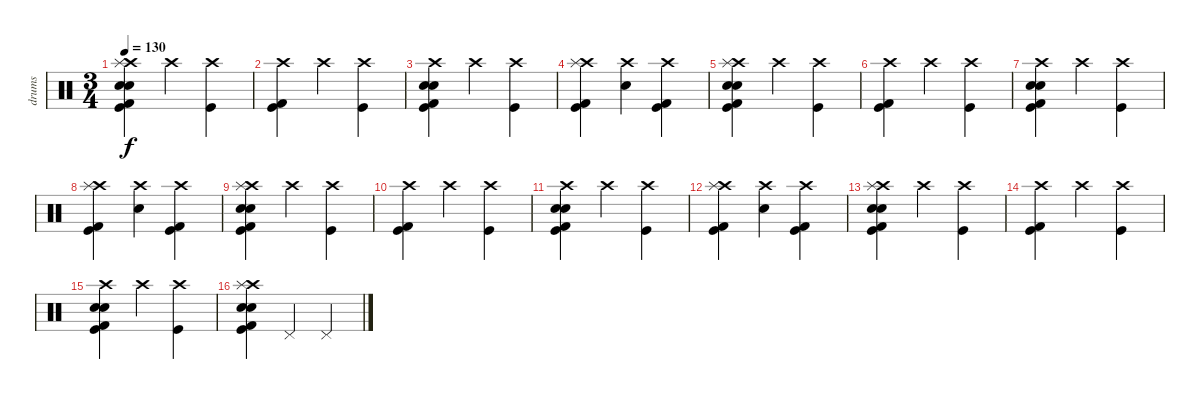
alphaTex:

\track ("drums" "drums") {instrument percussion}
\staff {score}
\articulation defaults
\ts (3 4)
\tempo 130
\clef neutral
\ks c
("Crash high (hit)" "Electric Snare (hit)" "Snare (hit) 2" "Splash (hit)" "Kick (hit) 2" "Kick (hit)").4{dy f} "Crash high (hit)".4 ("Crash high (hit)" "Kick (hit)").4 |
("Crash high (hit)" "Kick (hit) 2" "Kick (hit)").4 "Crash high (hit)".4 ("Crash high (hit)" "Kick (hit)").4 |
("Crash high (hit)" "Electric Snare (hit)" "Snare (hit) 2" "Kick (hit) 2" "Kick (hit)").4 "Crash high (hit)".4 ("Crash high (hit)" "Kick (hit)").4 |
("Crash high (hit)" "Splash (hit)" "Kick (hit) 2" "Kick (hit)").4 ("Crash high (hit)" "Snare (hit) 2").4 ("Crash high (hit)" "Kick (hit) 2" "Kick (hit)").4 |
("Crash high (hit)" "Electric Snare (hit)" "Snare (hit) 2" "Splash (hit)" "Kick (hit) 2" "Kick (hit)").4 "Crash high (hit)".4 ("Crash high (hit)" "Kick (hit)").4 |
("Crash high (hit)" "Kick (hit) 2" "Kick (hit)").4 "Crash high (hit)".4 ("Crash high (hit)" "Kick (hit)").4 |
("Crash high (hit)" "Electric Snare (hit)" "Snare (hit) 2" "Kick (hit) 2" "Kick (hit)").4 "Crash high (hit)".4 ("Crash high (hit)" "Kick (hit)").4 |
("Crash high (hit)" "Splash (hit)" "Kick (hit) 2" "Kick (hit)").4 ("Crash high (hit)" "Snare (hit) 2").4 ("Crash high (hit)" "Kick (hit) 2" "Kick (hit)").4 |
("Crash high (hit)" "Electric Snare (hit)" "Snare (hit) 2" "Splash (hit)" "Kick (hit) 2" "Kick (hit)").4 "Crash high (hit)".4 ("Crash high (hit)" "Kick (hit)").4 |
("Crash high (hit)" "Kick (hit) 2" "Kick (hit)").4 "Crash high (hit)".4 ("Crash high (hit)" "Kick (hit)").4 |
("Crash high (hit)" "Electric Snare (hit)" "Snare (hit) 2" "Kick (hit) 2" "Kick (hit)").4 "Crash high (hit)".4 ("Crash high (hit)" "Kick (hit)").4 |
("Crash high (hit)" "Splash (hit)" "Kick (hit) 2" "Kick (hit)").4 ("Crash high (hit)" "Snare (hit) 2").4 ("Crash high (hit)" "Kick (hit) 2" "Kick (hit)").4 |
("Crash high (hit)" "Electric Snare (hit)" "Snare (hit) 2" "Splash (hit)" "Kick (hit) 2" "Kick (hit)").4 "Crash high (hit)".4 ("Crash high (hit)" "Kick (hit)").4 |
("Crash high (hit)" "Kick (hit) 2" "Kick (hit)").4 "Crash high (hit)".4 ("Crash high (hit)" "Kick (hit)").4 |
("Crash high (hit)" "Electric Snare (hit)" "Snare (hit) 2" "Kick (hit) 2" "Kick (hit)").4 "Crash high (hit)".4 ("Crash high (hit)" "Kick (hit)").4 |
("Crash high (hit)" "Electric Snare (hit)" "Snare (hit) 2" "Splash (hit)" "Kick (hit) 2" "Kick (hit)").4 "Pedal Hi-Hat (hit)".4 "Pedal Hi-Hat (hit)".4
